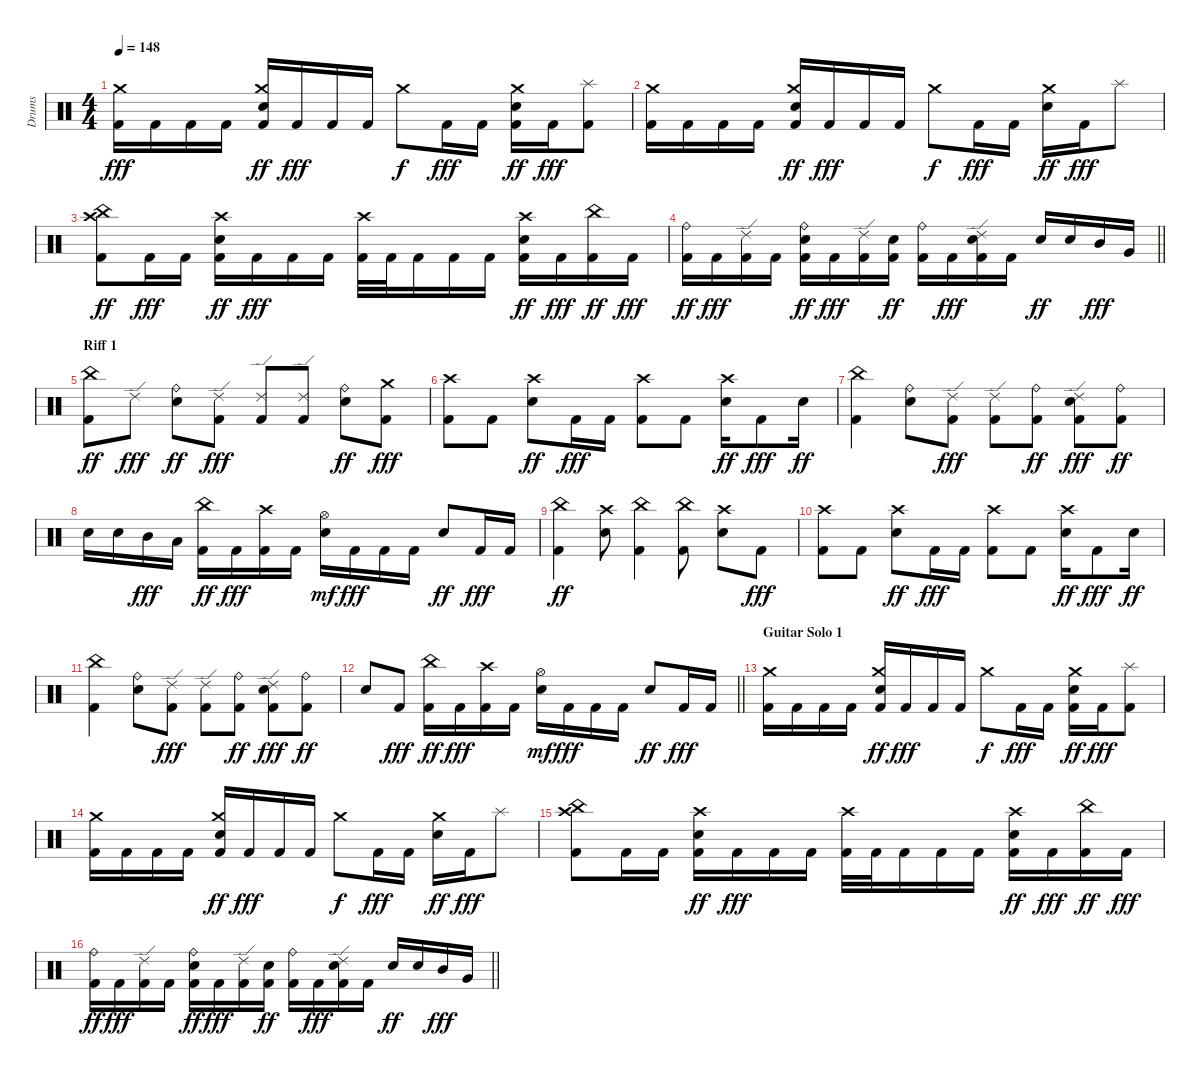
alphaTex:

\track ("Drums" "Drums") {instrument percussion}
\staff {score}
\articulation defaults
\ts (4 4)
\tempo 148
\clef neutral
\ks c
("Kick (hit) 2" "Crash medium (hit)").16{dy fff} "Kick (hit) 2".16 "Kick (hit) 2".16 "Kick (hit) 2".16 ("Kick (hit) 2" "Snare (hit) 2" "Crash medium (hit)").16{dy ff} "Kick (hit) 2".16{dy fff} "Kick (hit) 2".16 "Kick (hit) 2".16 "Crash medium (hit)".8{dy f} "Kick (hit) 2".16{dy fff} "Kick (hit) 2".16 ("Kick (hit) 2" "Snare (hit) 2" "Crash medium (hit)").16{dy ff} "Kick (hit) 2".16{dy fff} ("Kick (hit) 2" "Splash (hit)").8 |
("Kick (hit) 2" "Crash medium (hit)").16 "Kick (hit) 2".16 "Kick (hit) 2".16 "Kick (hit) 2".16 ("Kick (hit) 2" "Snare (hit) 2" "Crash medium (hit)").16{dy ff} "Kick (hit) 2".16{dy fff} "Kick (hit) 2".16 "Kick (hit) 2".16 "Crash medium (hit)".8{dy f} "Kick (hit) 2".16{dy fff} "Kick (hit) 2".16 ("Snare (hit) 2" "Crash medium (hit)").16{dy ff} "Kick (hit) 2".16{dy fff} "Splash (hit)".8 |
("Kick (hit) 2" "China (hit)" "Crash high (hit)").8{dy ff} "Kick (hit) 2".16{dy fff} "Kick (hit) 2".16 ("Kick (hit) 2" "Snare (hit) 2" "Crash high (hit)").16{dy ff} "Kick (hit) 2".16{dy fff} "Kick (hit) 2".16 "Kick (hit) 2".16 ("Kick (hit) 2" "Crash high (hit)").32 "Kick (hit) 2".32 "Kick (hit) 2".16 "Kick (hit) 2".16 "Kick (hit) 2".16 ("Kick (hit) 2" "Snare (hit) 2" "Crash high (hit)").16{dy ff} "Kick (hit) 2".16{dy fff} ("Kick (hit) 2" "China (hit)").16{dy ff} "Kick (hit) 2".16{dy fff} |
\barLineRight lightlight
("Kick (hit) 2" "Ride (bell)").16{dy ff} "Kick (hit) 2".16{dy fff} ("Kick (hit) 2" "Ride (edge) 2").16 "Kick (hit) 2".16 ("Kick (hit) 2" "Snare (hit) 2" "Ride (bell)").16{dy ff} "Kick (hit) 2".16{dy fff} ("Kick (hit) 2" "Ride (edge) 2").16 ("Kick (hit) 2" "Snare (hit) 2").16{dy ff} ("Kick (hit) 2" "Ride (bell)").16 "Kick (hit) 2".16{dy fff} ("Kick (hit) 2" "Snare (hit) 2" "Ride (edge) 2").16 "Kick (hit) 2".16 "Snare (hit) 2".16{dy ff} "Snare (hit) 2".16 "Mid Tom (hit)".16{dy fff} "Very Low Tom (hit)".16 |
\section ("" "Riff 1")
("Kick (hit) 2" "China (hit)").8{dy ff} "Ride (edge) 2".8{dy fff} ("Snare (hit) 2" "Ride (bell)").8{dy ff} ("Kick (hit) 2" "Ride (edge) 2").8{dy fff} ("Kick (hit) 2" "Ride (edge) 2").8 ("Kick (hit) 2" "Ride (edge) 2").8 ("Snare (hit) 2" "Ride (bell)").8{dy ff} ("Kick (hit) 2" "Crash medium (hit)").8{dy fff} |
("Kick (hit) 2" "Crash high (hit)").8 "Kick (hit) 2".8 ("Snare (hit) 2" "Crash high (hit)").8{dy ff} "Kick (hit) 2".16{dy fff} "Kick (hit) 2".16 ("Kick (hit) 2" "Crash high (hit)").8 "Kick (hit) 2".8 ("Snare (hit) 2" "Crash high (hit)").16{dy ff} "Kick (hit) 2".8{dy fff} "Snare (hit) 2".16{dy ff} |
("Kick (hit) 2" "China (hit)").4 ("Snare (hit) 2" "Ride (bell)").8 ("Kick (hit) 2" "Ride (edge) 2").8{dy fff} ("Kick (hit) 2" "Ride (edge) 2").8 ("Kick (hit) 2" "Ride (bell)").8{dy ff} ("Kick (hit) 2" "Snare (hit) 2" "Ride (edge) 2").8{dy fff} ("Kick (hit) 2" "Ride (bell)").8{dy ff} |
"Snare (hit) 2".16 "Snare (hit) 2".16 "Mid Tom (hit)".16{dy fff} "Low Tom (hit)".16 ("Kick (hit) 2" "China (hit)").16{dy ff} "Kick (hit) 2".16{dy fff} ("Kick (hit) 2" "Crash high (hit)").16 "Kick (hit) 2".16 ("Snare (hit) 2" "Hi-Hat (open)").16{dy mf} "Kick (hit) 2".16{dy fff} "Kick (hit) 2".16 "Kick (hit) 2".16 "Snare (hit) 2".8{dy ff} "Kick (hit) 2".16{dy fff} "Kick (hit) 2".16 |
("Kick (hit) 2" "China (hit)").4{dy ff} ("Snare (hit) 2" "Crash high (hit)").8 ("Kick (hit) 2" "China (hit)").4 ("Kick (hit) 2" "China (hit)").8 ("Snare (hit) 2" "Crash high (hit)").8 "Kick (hit) 2".8{dy fff} |
("Kick (hit) 2" "Crash high (hit)").8 "Kick (hit) 2".8 ("Snare (hit) 2" "Crash high (hit)").8{dy ff} "Kick (hit) 2".16{dy fff} "Kick (hit) 2".16 ("Kick (hit) 2" "Crash high (hit)").8 "Kick (hit) 2".8 ("Snare (hit) 2" "Crash high (hit)").16{dy ff} "Kick (hit) 2".8{dy fff} "Snare (hit) 2".16{dy ff} |
("Kick (hit) 2" "China (hit)").4 ("Snare (hit) 2" "Ride (bell)").8 ("Kick (hit) 2" "Ride (edge) 2").8{dy fff} ("Kick (hit) 2" "Ride (edge) 2").8 ("Kick (hit) 2" "Ride (bell)").8{dy ff} ("Kick (hit) 2" "Snare (hit) 2" "Ride (edge) 2").8{dy fff} ("Kick (hit) 2" "Ride (bell)").8{dy ff} |
\barLineRight lightlight "Snare (hit) 2".8 "Kick (hit) 2".8{dy fff}
("Kick (hit) 2" "China (hit)").16{dy ff} "Kick (hit) 2".16{dy fff} ("Kick (hit) 2" "Crash high (hit)").16 "Kick (hit) 2".16 ("Snare (hit) 2" "Hi-Hat (open)").16{dy mf} "Kick (hit) 2".16{dy fff} "Kick (hit) 2".16 "Kick (hit) 2".16 "Snare (hit) 2".8{dy ff} "Kick (hit) 2".16{dy fff} "Kick (hit) 2".16 |
\section ("" "Guitar Solo 1")
("Kick (hit) 2" "Crash medium (hit)").16 "Kick (hit) 2".16 "Kick (hit) 2".16 "Kick (hit) 2".16 ("Kick (hit) 2" "Snare (hit) 2" "Crash medium (hit)").16{dy ff} "Kick (hit) 2".16{dy fff} "Kick (hit) 2".16 "Kick (hit) 2".16 "Crash medium (hit)".8{dy f} "Kick (hit) 2".16{dy fff} "Kick (hit) 2".16 ("Kick (hit) 2" "Snare (hit) 2" "Crash medium (hit)").16{dy ff} "Kick (hit) 2".16{dy fff} ("Kick (hit) 2" "Splash (hit)").8 |
("Kick (hit) 2" "Crash medium (hit)").16 "Kick (hit) 2".16 "Kick (hit) 2".16 "Kick (hit) 2".16 ("Kick (hit) 2" "Snare (hit) 2" "Crash medium (hit)").16{dy ff} "Kick (hit) 2".16{dy fff} "Kick (hit) 2".16 "Kick (hit) 2".16 "Crash medium (hit)".8{dy f} "Kick (hit) 2".16{dy fff} "Kick (hit) 2".16 ("Snare (hit) 2" "Crash medium (hit)").16{dy ff} "Kick (hit) 2".16{dy fff} "Splash (hit)".8 |
("Kick (hit) 2" "China (hit)" "Crash high (hit)").8 "Kick (hit) 2".16 "Kick (hit) 2".16 ("Kick (hit) 2" "Snare (hit) 2" "Crash high (hit)").16{dy ff} "Kick (hit) 2".16{dy fff} "Kick (hit) 2".16 "Kick (hit) 2".16 ("Kick (hit) 2" "Crash high (hit)").32 "Kick (hit) 2".32 "Kick (hit) 2".16 "Kick (hit) 2".16 "Kick (hit) 2".16 ("Kick (hit) 2" "Snare (hit) 2" "Crash high (hit)").16{dy ff} "Kick (hit) 2".16{dy fff} ("Kick (hit) 2" "China (hit)").16{dy ff} "Kick (hit) 2".16{dy fff} |
\barLineRight lightlight
("Kick (hit) 2" "Ride (bell)").16{dy ff} "Kick (hit) 2".16{dy fff} ("Kick (hit) 2" "Ride (edge) 2").16 "Kick (hit) 2".16 ("Kick (hit) 2" "Snare (hit) 2" "Ride (bell)").16{dy ff} "Kick (hit) 2".16{dy fff} ("Kick (hit) 2" "Ride (edge) 2").16 ("Kick (hit) 2" "Snare (hit) 2").16{dy ff} ("Kick (hit) 2" "Ride (bell)").16 "Kick (hit) 2".16{dy fff} ("Kick (hit) 2" "Snare (hit) 2" "Ride (edge) 2").16 "Kick (hit) 2".16 "Snare (hit) 2".16{dy ff} "Snare (hit) 2".16 "Mid Tom (hit)".16{dy fff} "Very Low Tom (hit)".16
